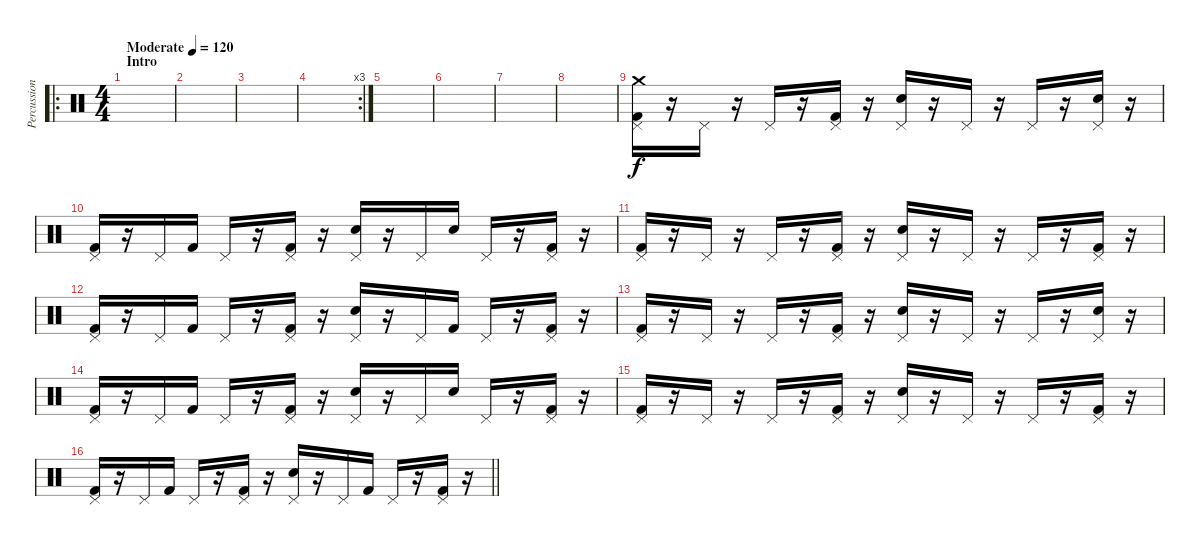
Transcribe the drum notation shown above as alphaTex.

\track ("Percussion" "Percussion") {instrument percussion}
\staff {score}
\articulation defaults
\ro
\ts (4 4)
\section ("" "Intro")
\tempo (120 "Moderate")
\clef neutral
\ks c
|
|
|
\rc 3
|
|
|
|
|
("Crash medium (hit)" "Pedal Hi-Hat (hit)" "Kick (hit) 2").16 r.16 "Pedal Hi-Hat (hit)".16 r.16 "Pedal Hi-Hat (hit)".16 r.16 ("Pedal Hi-Hat (hit)" "Kick (hit) 2").16 r.16 ("Pedal Hi-Hat (hit)" "Electric Snare (hit)").16 r.16 "Pedal Hi-Hat (hit)".16 r.16 "Pedal Hi-Hat (hit)".16 r.16 ("Pedal Hi-Hat (hit)" "Electric Snare (hit)").16 r.16 |
("Pedal Hi-Hat (hit)" "Kick (hit) 2").16 r.16 "Pedal Hi-Hat (hit)".16 "Kick (hit) 2".16 "Pedal Hi-Hat (hit)".16 r.16 ("Pedal Hi-Hat (hit)" "Kick (hit) 2").16 r.16 ("Pedal Hi-Hat (hit)" "Electric Snare (hit)").16 r.16 "Pedal Hi-Hat (hit)".16 "Electric Snare (hit)".16 "Pedal Hi-Hat (hit)".16 r.16 ("Pedal Hi-Hat (hit)" "Kick (hit) 2").16 r.16 |
("Pedal Hi-Hat (hit)" "Kick (hit) 2").16 r.16 "Pedal Hi-Hat (hit)".16 r.16 "Pedal Hi-Hat (hit)".16 r.16 ("Pedal Hi-Hat (hit)" "Kick (hit) 2").16 r.16 ("Pedal Hi-Hat (hit)" "Electric Snare (hit)").16 r.16 "Pedal Hi-Hat (hit)".16 r.16 "Pedal Hi-Hat (hit)".16 r.16 ("Pedal Hi-Hat (hit)" "Kick (hit) 2").16 r.16 |
("Pedal Hi-Hat (hit)" "Kick (hit) 2").16 r.16 "Pedal Hi-Hat (hit)".16 "Kick (hit) 2".16 "Pedal Hi-Hat (hit)".16 r.16 ("Pedal Hi-Hat (hit)" "Kick (hit) 2").16 r.16 ("Pedal Hi-Hat (hit)" "Electric Snare (hit)").16 r.16 "Pedal Hi-Hat (hit)".16 "Kick (hit) 2".16 "Pedal Hi-Hat (hit)".16 r.16 ("Pedal Hi-Hat (hit)" "Kick (hit) 2").16 r.16 |
("Pedal Hi-Hat (hit)" "Kick (hit) 2").16 r.16 "Pedal Hi-Hat (hit)".16 r.16 "Pedal Hi-Hat (hit)".16 r.16 ("Pedal Hi-Hat (hit)" "Kick (hit) 2").16 r.16 ("Pedal Hi-Hat (hit)" "Electric Snare (hit)").16 r.16 "Pedal Hi-Hat (hit)".16 r.16 "Pedal Hi-Hat (hit)".16 r.16 ("Pedal Hi-Hat (hit)" "Electric Snare (hit)").16 r.16 |
("Pedal Hi-Hat (hit)" "Kick (hit) 2").16 r.16 "Pedal Hi-Hat (hit)".16 "Kick (hit) 2".16 "Pedal Hi-Hat (hit)".16 r.16 ("Pedal Hi-Hat (hit)" "Kick (hit) 2").16 r.16 ("Pedal Hi-Hat (hit)" "Electric Snare (hit)").16 r.16 "Pedal Hi-Hat (hit)".16 "Electric Snare (hit)".16 "Pedal Hi-Hat (hit)".16 r.16 ("Pedal Hi-Hat (hit)" "Kick (hit) 2").16 r.16 |
("Pedal Hi-Hat (hit)" "Kick (hit) 2").16 r.16 "Pedal Hi-Hat (hit)".16 r.16 "Pedal Hi-Hat (hit)".16 r.16 ("Pedal Hi-Hat (hit)" "Kick (hit) 2").16 r.16 ("Pedal Hi-Hat (hit)" "Electric Snare (hit)").16 r.16 "Pedal Hi-Hat (hit)".16 r.16 "Pedal Hi-Hat (hit)".16 r.16 ("Pedal Hi-Hat (hit)" "Kick (hit) 2").16 r.16 |
\barLineRight lightlight
("Pedal Hi-Hat (hit)" "Kick (hit) 2").16 r.16 "Pedal Hi-Hat (hit)".16 "Kick (hit) 2".16 "Pedal Hi-Hat (hit)".16 r.16 ("Pedal Hi-Hat (hit)" "Kick (hit) 2").16 r.16 ("Pedal Hi-Hat (hit)" "Electric Snare (hit)").16 r.16 "Pedal Hi-Hat (hit)".16 "Kick (hit) 2".16 "Pedal Hi-Hat (hit)".16 r.16 ("Pedal Hi-Hat (hit)" "Kick (hit) 2").16 r.16
